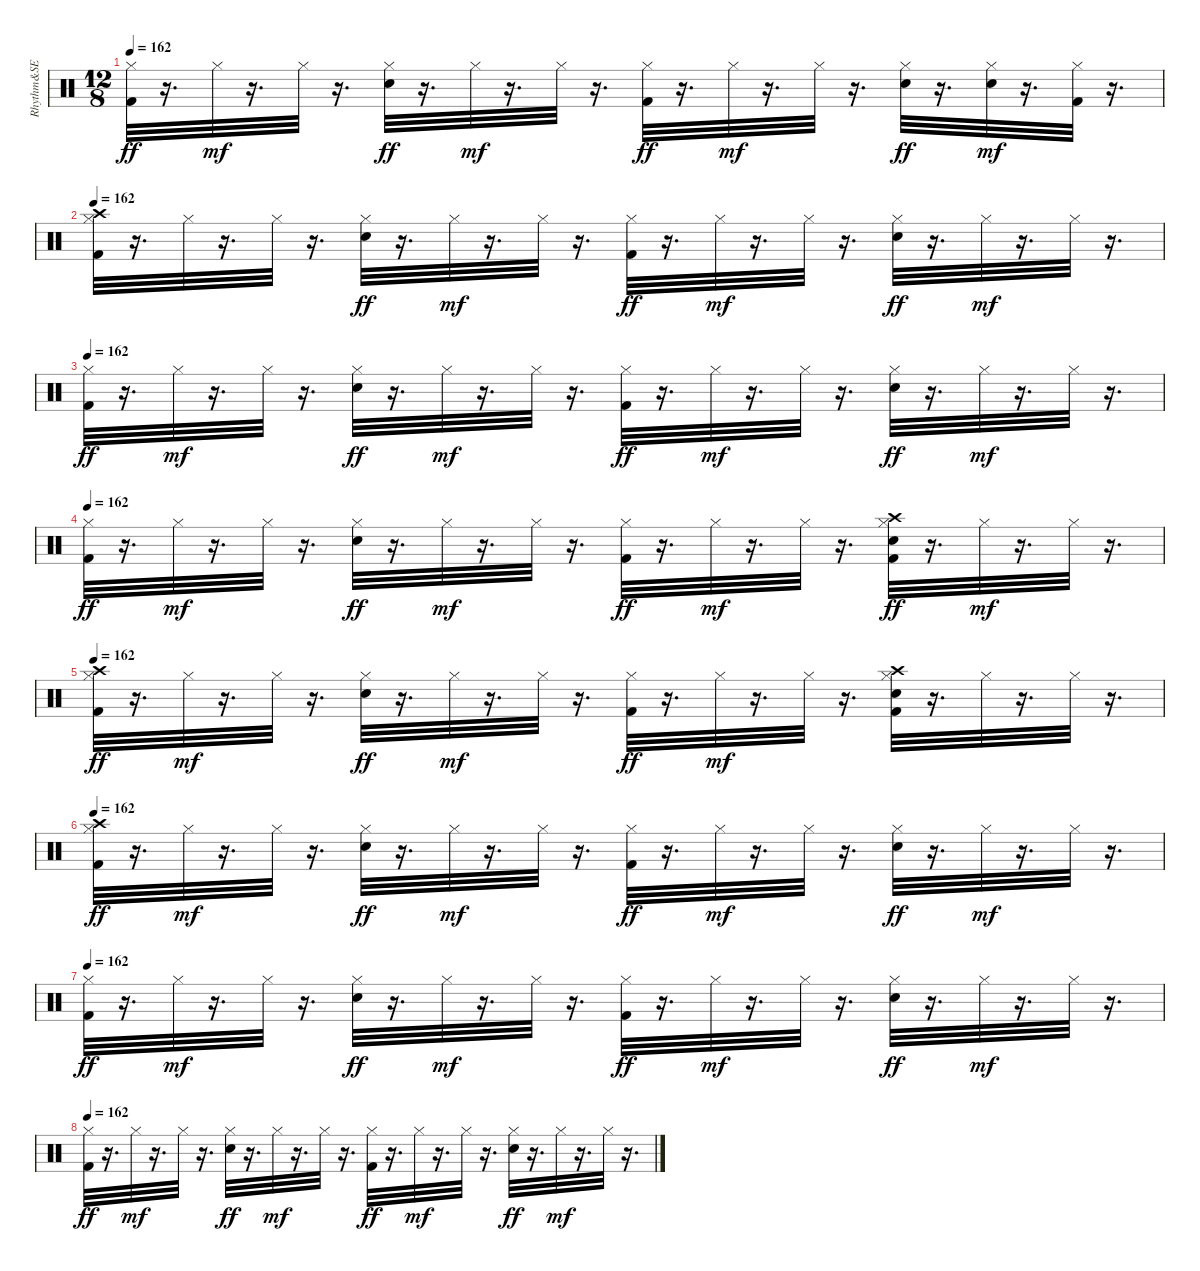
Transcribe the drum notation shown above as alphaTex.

\track ("Rhythm&SE" "Rhythm&SE") {instrument percussion}
\staff {score}
\articulation defaults
\ts (12 8)
\tempo 162
\clef neutral
\ks c
("Kick (hit) 2" "Hi-Hat (closed)").32{dy ff volume 14 balance 8} r.16{d} "Hi-Hat (closed)".32{dy mf} r.16{d} "Hi-Hat (closed)".32{volume 14} r.16{d} ("Snare (hit) 2" "Hi-Hat (closed)").32{dy ff} r.16{d} "Hi-Hat (closed)".32{dy mf} r.16{d} "Hi-Hat (closed)".32 r.16{d} ("Kick (hit) 2" "Hi-Hat (closed)").32{dy ff} r.16{d} "Hi-Hat (closed)".32{dy mf} r.16{d} "Hi-Hat (closed)".32 r.16{d} ("Snare (hit) 2" "Hi-Hat (closed)").32{dy ff} r.16{d} ("Snare (hit) 2" "Hi-Hat (closed)").32{dy mf} r.16{d} ("Kick (hit) 2" "Hi-Hat (closed)").32 r.16{d} |
\tempo 162
("Kick (hit) 2" "Hi-Hat (closed)" "Crash high (hit)").32{volume 14 balance 8} r.16{d} "Hi-Hat (closed)".32 r.16{d} "Hi-Hat (closed)".32{volume 14} r.16{d} ("Snare (hit) 2" "Hi-Hat (closed)").32{dy ff} r.16{d} "Hi-Hat (closed)".32{dy mf} r.16{d} "Hi-Hat (closed)".32 r.16{d} ("Kick (hit) 2" "Hi-Hat (closed)").32{dy ff} r.16{d} "Hi-Hat (closed)".32{dy mf} r.16{d} "Hi-Hat (closed)".32 r.16{d} ("Snare (hit) 2" "Hi-Hat (closed)").32{dy ff} r.16{d} "Hi-Hat (closed)".32{dy mf} r.16{d} "Hi-Hat (closed)".32 r.16{d} |
\tempo 162
("Kick (hit) 2" "Hi-Hat (closed)").32{dy ff volume 14 balance 8} r.16{d} "Hi-Hat (closed)".32{dy mf} r.16{d} "Hi-Hat (closed)".32{volume 14} r.16{d} ("Snare (hit) 2" "Hi-Hat (closed)").32{dy ff} r.16{d} "Hi-Hat (closed)".32{dy mf} r.16{d} "Hi-Hat (closed)".32 r.16{d} ("Kick (hit) 2" "Hi-Hat (closed)").32{dy ff} r.16{d} "Hi-Hat (closed)".32{dy mf} r.16{d} "Hi-Hat (closed)".32 r.16{d} ("Snare (hit) 2" "Hi-Hat (closed)").32{dy ff} r.16{d} "Hi-Hat (closed)".32{dy mf} r.16{d} "Hi-Hat (closed)".32 r.16{d} |
\tempo 162
("Kick (hit) 2" "Hi-Hat (closed)").32{dy ff volume 14 balance 8} r.16{d} "Hi-Hat (closed)".32{dy mf} r.16{d} "Hi-Hat (closed)".32{volume 14} r.16{d} ("Snare (hit) 2" "Hi-Hat (closed)").32{dy ff} r.16{d} "Hi-Hat (closed)".32{dy mf} r.16{d} "Hi-Hat (closed)".32 r.16{d} ("Kick (hit) 2" "Hi-Hat (closed)").32{dy ff} r.16{d} "Hi-Hat (closed)".32{dy mf} r.16{d} "Hi-Hat (closed)".32 r.16{d} ("Snare (hit) 2" "Hi-Hat (closed)" "Kick (hit) 2" "Crash high (hit)").32{dy ff} r.16{d} "Hi-Hat (closed)".32{dy mf} r.16{d} "Hi-Hat (closed)".32 r.16{d} |
\tempo 162
("Hi-Hat (closed)" "Kick (hit) 2" "Crash high (hit)").32{dy ff volume 14 balance 8} r.16{d} "Hi-Hat (closed)".32{dy mf} r.16{d} "Hi-Hat (closed)".32{volume 14} r.16{d} ("Snare (hit) 2" "Hi-Hat (closed)").32{dy ff} r.16{d} "Hi-Hat (closed)".32{dy mf} r.16{d} "Hi-Hat (closed)".32 r.16{d} ("Kick (hit) 2" "Hi-Hat (closed)").32{dy ff} r.16{d} "Hi-Hat (closed)".32{dy mf} r.16{d} "Hi-Hat (closed)".32 r.16{d} ("Snare (hit) 2" "Hi-Hat (closed)" "Kick (hit) 2" "Crash high (hit)").32 r.16{d} "Hi-Hat (closed)".32 r.16{d} "Hi-Hat (closed)".32 r.16{d} |
\tempo 162
("Hi-Hat (closed)" "Kick (hit) 2" "Crash high (hit)").32{dy ff volume 14 balance 8} r.16{d} "Hi-Hat (closed)".32{dy mf} r.16{d} "Hi-Hat (closed)".32{volume 14} r.16{d} ("Snare (hit) 2" "Hi-Hat (closed)").32{dy ff} r.16{d} "Hi-Hat (closed)".32{dy mf} r.16{d} "Hi-Hat (closed)".32 r.16{d} ("Kick (hit) 2" "Hi-Hat (closed)").32{dy ff} r.16{d} "Hi-Hat (closed)".32{dy mf} r.16{d} "Hi-Hat (closed)".32 r.16{d} ("Snare (hit) 2" "Hi-Hat (closed)").32{dy ff} r.16{d} "Hi-Hat (closed)".32{dy mf} r.16{d} "Hi-Hat (closed)".32 r.16{d} |
\tempo 162
("Kick (hit) 2" "Hi-Hat (closed)").32{dy ff volume 14 balance 8} r.16{d} "Hi-Hat (closed)".32{dy mf} r.16{d} "Hi-Hat (closed)".32{volume 14} r.16{d} ("Snare (hit) 2" "Hi-Hat (closed)").32{dy ff} r.16{d} "Hi-Hat (closed)".32{dy mf} r.16{d} "Hi-Hat (closed)".32 r.16{d} ("Kick (hit) 2" "Hi-Hat (closed)").32{dy ff} r.16{d} "Hi-Hat (closed)".32{dy mf} r.16{d} "Hi-Hat (closed)".32 r.16{d} ("Snare (hit) 2" "Hi-Hat (closed)").32{dy ff} r.16{d} "Hi-Hat (closed)".32{dy mf} r.16{d} "Hi-Hat (closed)".32 r.16{d} |
\tempo 162
("Kick (hit) 2" "Hi-Hat (closed)").32{dy ff volume 14 balance 8} r.16{d} "Hi-Hat (closed)".32{dy mf} r.16{d} "Hi-Hat (closed)".32{volume 14} r.16{d} ("Snare (hit) 2" "Hi-Hat (closed)").32{dy ff} r.16{d} "Hi-Hat (closed)".32{dy mf} r.16{d} "Hi-Hat (closed)".32 r.16{d} ("Kick (hit) 2" "Hi-Hat (closed)").32{dy ff} r.16{d} "Hi-Hat (closed)".32{dy mf} r.16{d} "Hi-Hat (closed)".32 r.16{d} ("Snare (hit) 2" "Hi-Hat (closed)").32{dy ff} r.16{d} "Hi-Hat (closed)".32{dy mf} r.16{d} "Hi-Hat (closed)".32 r.16{d}
